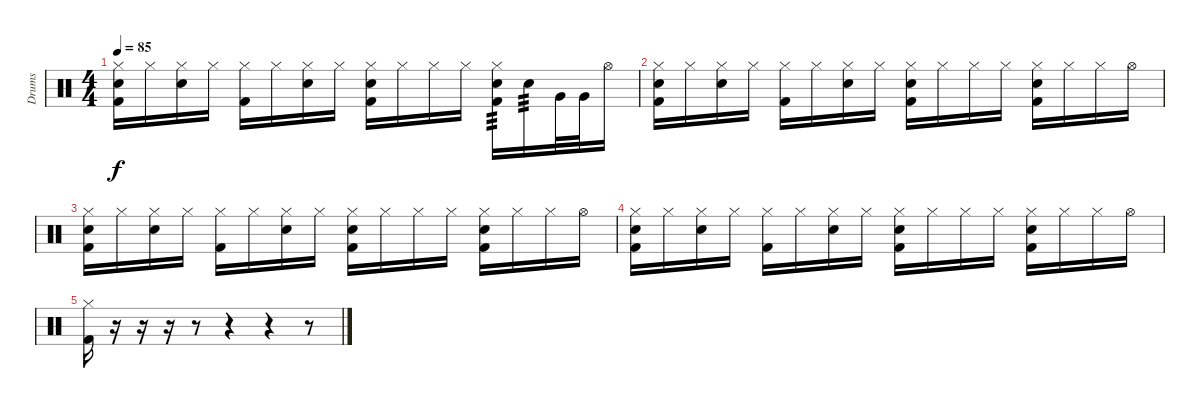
\track ("Drums" "Drums") {instrument percussion}
\staff {score}
\articulation defaults
\ts (4 4)
\tempo 85
\clef neutral
\ks c
("Hi-Hat (closed)" "Electric Snare (hit)" "Kick (hit) 2").16{dy f} "Hi-Hat (closed)".16 ("Hi-Hat (closed)" "Electric Snare (hit)").16 "Hi-Hat (closed)".16 ("Hi-Hat (closed)" "Kick (hit) 2").16 "Hi-Hat (closed)".16 ("Hi-Hat (closed)" "Electric Snare (hit)").16 "Hi-Hat (closed)".16 ("Hi-Hat (closed)" "Electric Snare (hit)" "Kick (hit) 2").16 "Hi-Hat (closed)".16 "Hi-Hat (closed)".16 "Hi-Hat (closed)".16 ("Hi-Hat (closed)" "Electric Snare (hit)" "Kick (hit) 2").16{tp 3} "Electric Snare (hit)".16{tp 3} "Very Low Tom (hit)".32 "Very Low Tom (hit)".32 "Hi-Hat (open)".16 |
("Hi-Hat (closed)" "Electric Snare (hit)" "Kick (hit) 2").16 "Hi-Hat (closed)".16 ("Hi-Hat (closed)" "Electric Snare (hit)").16 "Hi-Hat (closed)".16 ("Hi-Hat (closed)" "Kick (hit) 2").16 "Hi-Hat (closed)".16 ("Hi-Hat (closed)" "Electric Snare (hit)").16 "Hi-Hat (closed)".16 ("Hi-Hat (closed)" "Electric Snare (hit)" "Kick (hit) 2").16 "Hi-Hat (closed)".16 "Hi-Hat (closed)".16 "Hi-Hat (closed)".16 ("Hi-Hat (closed)" "Electric Snare (hit)" "Kick (hit) 2").16 "Hi-Hat (closed)".16 "Hi-Hat (closed)".16 "Hi-Hat (open)".16 |
("Hi-Hat (closed)" "Electric Snare (hit)" "Kick (hit) 2").16 "Hi-Hat (closed)".16 ("Hi-Hat (closed)" "Electric Snare (hit)").16 "Hi-Hat (closed)".16 ("Hi-Hat (closed)" "Kick (hit) 2").16 "Hi-Hat (closed)".16 ("Hi-Hat (closed)" "Electric Snare (hit)").16 "Hi-Hat (closed)".16 ("Hi-Hat (closed)" "Electric Snare (hit)" "Kick (hit) 2").16 "Hi-Hat (closed)".16 "Hi-Hat (closed)".16 "Hi-Hat (closed)".16 ("Hi-Hat (closed)" "Electric Snare (hit)" "Kick (hit) 2").16 "Hi-Hat (closed)".16 "Hi-Hat (closed)".16 "Hi-Hat (open)".16 |
("Hi-Hat (closed)" "Electric Snare (hit)" "Kick (hit) 2").16 "Hi-Hat (closed)".16 ("Hi-Hat (closed)" "Electric Snare (hit)").16 "Hi-Hat (closed)".16 ("Hi-Hat (closed)" "Kick (hit) 2").16 "Hi-Hat (closed)".16 ("Hi-Hat (closed)" "Electric Snare (hit)").16 "Hi-Hat (closed)".16 ("Hi-Hat (closed)" "Electric Snare (hit)" "Kick (hit) 2").16 "Hi-Hat (closed)".16 "Hi-Hat (closed)".16 "Hi-Hat (closed)".16 ("Hi-Hat (closed)" "Electric Snare (hit)" "Kick (hit) 2").16 "Hi-Hat (closed)".16 "Hi-Hat (closed)".16 "Hi-Hat (open)".16 |
("Hi-Hat (closed)" "Kick (hit) 2").16 r.16 r.16 r.16 r.8 r.4 r.4 r.8
